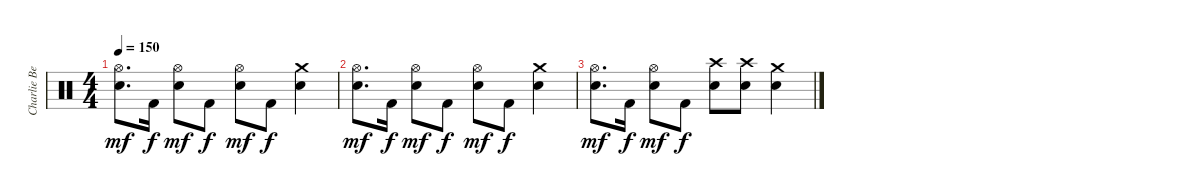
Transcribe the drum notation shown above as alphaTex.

\track ("Charlie Benante" "Charlie Be") {instrument percussion}
\staff {score}
\articulation defaults
\ts (4 4)
\tempo 150
\clef neutral
\ks c
("Hi-Hat (open)" "Snare (hit) 2").8{d dy mf} "Kick (hit) 2".16{dy f} ("Hi-Hat (open)" "Snare (hit) 2").8{dy mf} "Kick (hit) 2".8{dy f} ("Hi-Hat (open)" "Snare (hit) 2").8{dy mf} "Kick (hit) 2".8{dy f} ("Crash medium (hit)" "Snare (hit) 2").4 |
("Hi-Hat (open)" "Snare (hit) 2").8{d dy mf} "Kick (hit) 2".16{dy f} ("Hi-Hat (open)" "Snare (hit) 2").8{dy mf} "Kick (hit) 2".8{dy f} ("Hi-Hat (open)" "Snare (hit) 2").8{dy mf} "Kick (hit) 2".8{dy f} ("Crash medium (hit)" "Snare (hit) 2").4 |
("Hi-Hat (open)" "Snare (hit) 2").8{d dy mf} "Kick (hit) 2".16{dy f} ("Hi-Hat (open)" "Snare (hit) 2").8{dy mf} "Kick (hit) 2".8{dy f} ("Crash high (hit)" "Snare (hit) 2").8 ("Crash high (hit)" "Snare (hit) 2").8 ("Crash medium (hit)" "Snare (hit) 2").4
